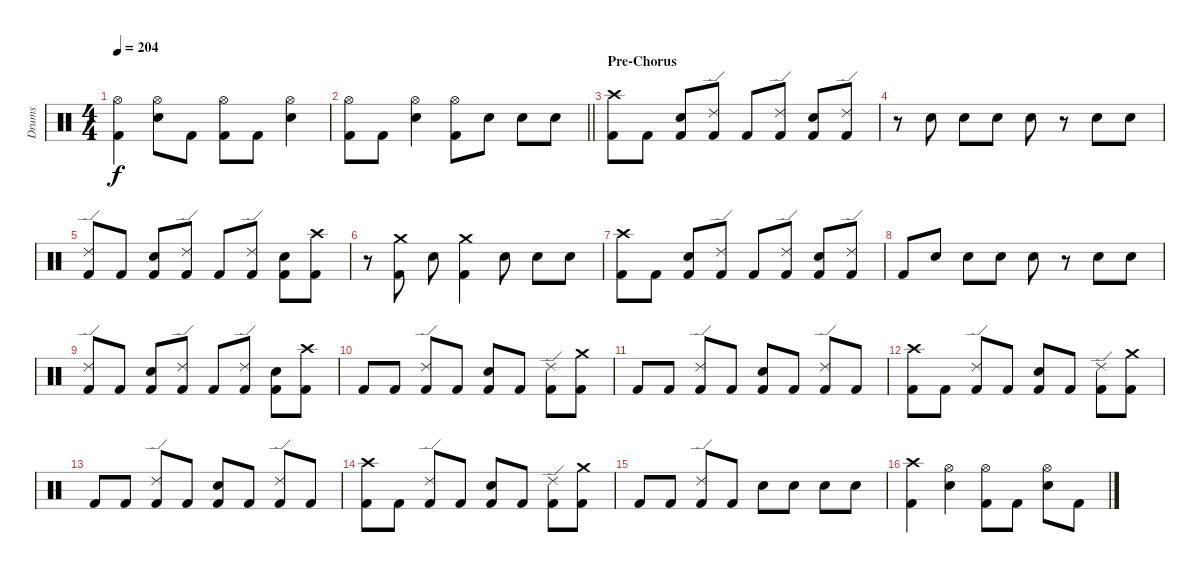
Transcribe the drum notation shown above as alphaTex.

\track ("Drums" "Drums") {instrument percussion}
\staff {score}
\articulation defaults
\ts (4 4)
\tempo 204
\clef neutral
\ks c
("Hi-Hat (open)" "Kick (hit) 2").4{dy f} ("Hi-Hat (open)" "Snare (hit) 2").8 "Kick (hit) 2".8 ("Hi-Hat (open)" "Kick (hit) 2").8 "Kick (hit) 2".8 ("Hi-Hat (open)" "Snare (hit) 2").4 |
\barLineRight lightlight
("Hi-Hat (open)" "Kick (hit) 2").8 "Kick (hit) 2".8 ("Hi-Hat (open)" "Snare (hit) 2").4 ("Hi-Hat (open)" "Kick (hit) 2").8 "Snare (hit) 2".8 "Snare (hit) 2".8 "Snare (hit) 2".8 |
\section ("" "Pre-Chorus")
("Crash high (hit)" "Kick (hit) 2").8 "Kick (hit) 2".8 ("Snare (hit) 2" "Kick (hit) 2").8 ("Ride (edge) 2" "Kick (hit) 2").8 "Kick (hit) 2".8 ("Ride (edge) 2" "Kick (hit) 2").8 ("Snare (hit) 2" "Kick (hit) 2").8 ("Ride (edge) 2" "Kick (hit) 2").8 |
r.8 "Snare (hit) 2".8 "Snare (hit) 2".8 "Snare (hit) 2".8 "Snare (hit) 2".8 r.8 "Snare (hit) 2".8 "Snare (hit) 2".8 |
("Ride (edge) 2" "Kick (hit) 2").8 "Kick (hit) 2".8 ("Snare (hit) 2" "Kick (hit) 2").8 ("Ride (edge) 2" "Kick (hit) 2").8 "Kick (hit) 2".8 ("Ride (edge) 2" "Kick (hit) 2").8 ("Snare (hit) 2" "Kick (hit) 2").8 ("Crash high (hit)" "Kick (hit) 2").8 |
r.8 ("Crash medium (hit)" "Kick (hit) 2").8 "Snare (hit) 2".8 ("Crash medium (hit)" "Kick (hit) 2").4 "Snare (hit) 2".8 "Snare (hit) 2".8 "Snare (hit) 2".8 |
("Crash high (hit)" "Kick (hit) 2").8 "Kick (hit) 2".8 ("Snare (hit) 2" "Kick (hit) 2").8 ("Ride (edge) 2" "Kick (hit) 2").8 "Kick (hit) 2".8 ("Ride (edge) 2" "Kick (hit) 2").8 ("Snare (hit) 2" "Kick (hit) 2").8 ("Ride (edge) 2" "Kick (hit) 2").8 |
"Kick (hit) 2".8 "Snare (hit) 2".8 "Snare (hit) 2".8 "Snare (hit) 2".8 "Snare (hit) 2".8 r.8 "Snare (hit) 2".8 "Snare (hit) 2".8 |
("Ride (edge) 2" "Kick (hit) 2").8 "Kick (hit) 2".8 ("Snare (hit) 2" "Kick (hit) 2").8 ("Ride (edge) 2" "Kick (hit) 2").8 "Kick (hit) 2".8 ("Ride (edge) 2" "Kick (hit) 2").8 ("Snare (hit) 2" "Kick (hit) 2").8 ("Crash high (hit)" "Kick (hit) 2").8 |
"Kick (hit) 2".8 "Kick (hit) 2".8 ("Ride (edge) 2" "Kick (hit) 2").8 "Kick (hit) 2".8 ("Snare (hit) 2" "Kick (hit) 2").8 "Kick (hit) 2".8 ("Ride (edge) 2" "Kick (hit) 2").8 ("Crash medium (hit)" "Kick (hit) 2").8 |
"Kick (hit) 2".8 "Kick (hit) 2".8 ("Ride (edge) 2" "Kick (hit) 2").8 "Kick (hit) 2".8 ("Snare (hit) 2" "Kick (hit) 2").8 "Kick (hit) 2".8 ("Ride (edge) 2" "Kick (hit) 2").8 "Kick (hit) 2".8 |
("Crash high (hit)" "Kick (hit) 2").8 "Kick (hit) 2".8 ("Ride (edge) 2" "Kick (hit) 2").8 "Kick (hit) 2".8 ("Snare (hit) 2" "Kick (hit) 2").8 "Kick (hit) 2".8 ("Ride (edge) 2" "Kick (hit) 2").8 ("Crash medium (hit)" "Kick (hit) 2").8 |
"Kick (hit) 2".8 "Kick (hit) 2".8 ("Ride (edge) 2" "Kick (hit) 2").8 "Kick (hit) 2".8 ("Snare (hit) 2" "Kick (hit) 2").8 "Kick (hit) 2".8 ("Ride (edge) 2" "Kick (hit) 2").8 "Kick (hit) 2".8 |
("Crash high (hit)" "Kick (hit) 2").8 "Kick (hit) 2".8 ("Ride (edge) 2" "Kick (hit) 2").8 "Kick (hit) 2".8 ("Snare (hit) 2" "Kick (hit) 2").8 "Kick (hit) 2".8 ("Ride (edge) 2" "Kick (hit) 2").8 ("Crash medium (hit)" "Kick (hit) 2").8 |
"Kick (hit) 2".8 "Kick (hit) 2".8 ("Ride (edge) 2" "Kick (hit) 2").8 "Kick (hit) 2".8 "Snare (hit) 2".8 "Snare (hit) 2".8 "Snare (hit) 2".8 "Snare (hit) 2".8 |
("Crash high (hit)" "Kick (hit) 2").4 ("Hi-Hat (open)" "Snare (hit) 2").4 ("Hi-Hat (open)" "Kick (hit) 2").8 "Kick (hit) 2".8 ("Hi-Hat (open)" "Snare (hit) 2").8 "Kick (hit) 2".8
